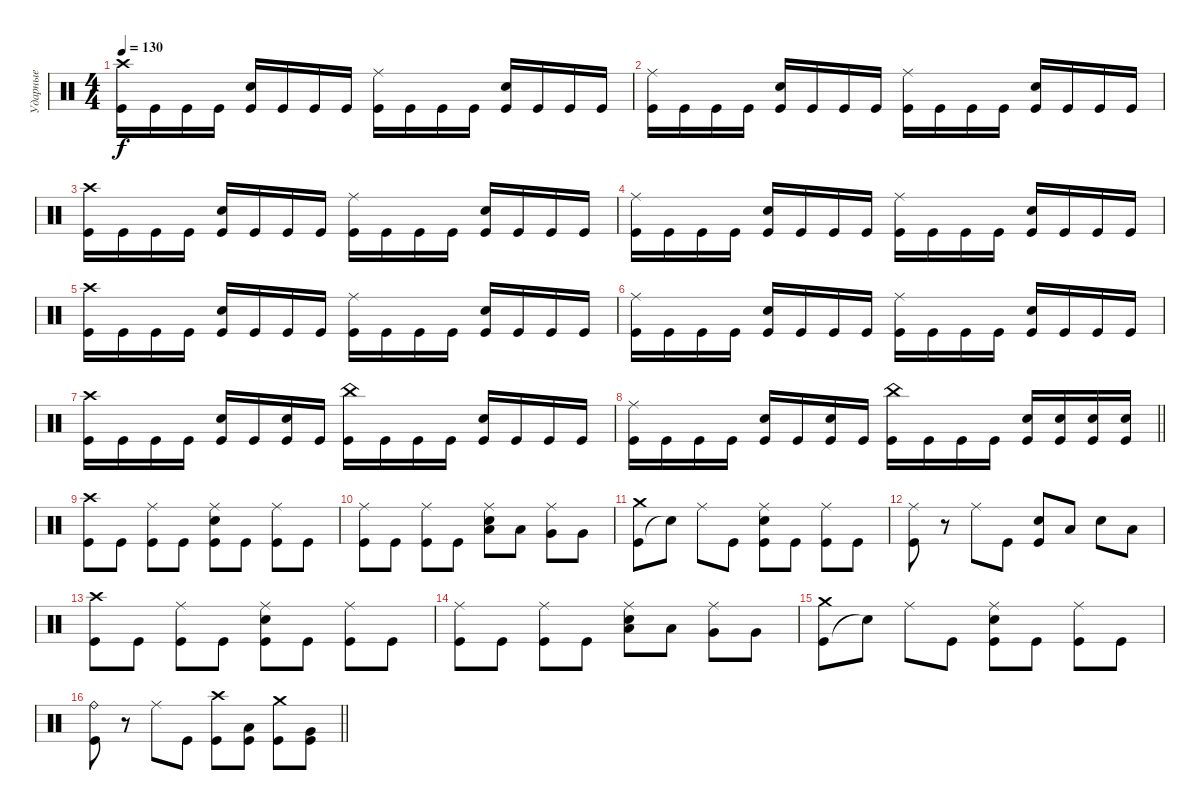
\track ("Ударные" "Ударные") {instrument percussion}
\staff {score}
\articulation defaults
\ts (4 4)
\tempo 130
\clef neutral
\ks c
("Crash high (hit)" "Kick (hit)").16{dy f} "Kick (hit)".16 "Kick (hit)".16 "Kick (hit)".16 ("Electric Snare (hit)" "Kick (hit)").16 "Kick (hit)".16 "Kick (hit)".16 "Kick (hit)".16 ("Ride (middle)" "Kick (hit)").16 "Kick (hit)".16 "Kick (hit)".16 "Kick (hit)".16 ("Electric Snare (hit)" "Kick (hit)").16 "Kick (hit)".16 "Kick (hit)".16 "Kick (hit)".16 |
("Ride (middle)" "Kick (hit)").16 "Kick (hit)".16 "Kick (hit)".16 "Kick (hit)".16 ("Electric Snare (hit)" "Kick (hit)").16 "Kick (hit)".16 "Kick (hit)".16 "Kick (hit)".16 ("Ride (middle)" "Kick (hit)").16 "Kick (hit)".16 "Kick (hit)".16 "Kick (hit)".16 ("Electric Snare (hit)" "Kick (hit)").16 "Kick (hit)".16 "Kick (hit)".16 "Kick (hit)".16 |
("Crash high (hit)" "Kick (hit)").16 "Kick (hit)".16 "Kick (hit)".16 "Kick (hit)".16 ("Electric Snare (hit)" "Kick (hit)").16 "Kick (hit)".16 "Kick (hit)".16 "Kick (hit)".16 ("Ride (middle)" "Kick (hit)").16 "Kick (hit)".16 "Kick (hit)".16 "Kick (hit)".16 ("Electric Snare (hit)" "Kick (hit)").16 "Kick (hit)".16 "Kick (hit)".16 "Kick (hit)".16 |
("Ride (middle)" "Kick (hit)").16 "Kick (hit)".16 "Kick (hit)".16 "Kick (hit)".16 ("Electric Snare (hit)" "Kick (hit)").16 "Kick (hit)".16 "Kick (hit)".16 "Kick (hit)".16 ("Ride (middle)" "Kick (hit)").16 "Kick (hit)".16 "Kick (hit)".16 "Kick (hit)".16 ("Electric Snare (hit)" "Kick (hit)").16 "Kick (hit)".16 "Kick (hit)".16 "Kick (hit)".16 |
("Crash high (hit)" "Kick (hit)").16 "Kick (hit)".16 "Kick (hit)".16 "Kick (hit)".16 ("Electric Snare (hit)" "Kick (hit)").16 "Kick (hit)".16 "Kick (hit)".16 "Kick (hit)".16 ("Ride (middle)" "Kick (hit)").16 "Kick (hit)".16 "Kick (hit)".16 "Kick (hit)".16 ("Electric Snare (hit)" "Kick (hit)").16 "Kick (hit)".16 "Kick (hit)".16 "Kick (hit)".16 |
("Ride (middle)" "Kick (hit)").16 "Kick (hit)".16 "Kick (hit)".16 "Kick (hit)".16 ("Electric Snare (hit)" "Kick (hit)").16 "Kick (hit)".16 "Kick (hit)".16 "Kick (hit)".16 ("Ride (middle)" "Kick (hit)").16 "Kick (hit)".16 "Kick (hit)".16 "Kick (hit)".16 ("Electric Snare (hit)" "Kick (hit)").16 "Kick (hit)".16 "Kick (hit)".16 "Kick (hit)".16 |
("Crash high (hit)" "Kick (hit)").16 "Kick (hit)".16 "Kick (hit)".16 "Kick (hit)".16 ("Electric Snare (hit)" "Kick (hit)").16 "Kick (hit)".16 ("Electric Snare (hit)" "Kick (hit)").16 "Kick (hit)".16 ("China (hit)" "Kick (hit)").16 "Kick (hit)".16 "Kick (hit)".16 "Kick (hit)".16 ("Electric Snare (hit)" "Kick (hit)").16 "Kick (hit)".16 "Kick (hit)".16 "Kick (hit)".16 |
\barLineRight lightlight
("Ride (middle)" "Kick (hit)").16 "Kick (hit)".16 "Kick (hit)".16 "Kick (hit)".16 ("Electric Snare (hit)" "Kick (hit)").16 "Kick (hit)".16 ("Electric Snare (hit)" "Kick (hit)").16 "Kick (hit)".16 ("China (hit)" "Kick (hit)").16 "Kick (hit)".16 "Kick (hit)".16 "Kick (hit)".16 ("Electric Snare (hit)" "Kick (hit)").16 ("Electric Snare (hit)" "Kick (hit)").16 ("Electric Snare (hit)" "Kick (hit)").16 ("Electric Snare (hit)" "Kick (hit)").16 |
\section ("" " ")
("Crash high (hit)" "Kick (hit)").8 "Kick (hit)".8 ("Ride (middle)" "Kick (hit)").8 "Kick (hit)".8 ("Ride (middle)" "Electric Snare (hit)" "Kick (hit)").8 "Kick (hit)".8 ("Ride (middle)" "Kick (hit)").8 "Kick (hit)".8 |
("Ride (middle)" "Kick (hit)").8 "Kick (hit)".8 ("Ride (middle)" "Kick (hit)").8 "Kick (hit)".8 ("Ride (middle)" "Electric Snare (hit)" "Low Tom (hit)").8 "Low Tom (hit)".8 ("Ride (middle)" "Very Low Tom (hit)").8 "Very Low Tom (hit)".8 |
("Kick (hit)" "Crash medium (hit)").8 "Snare (hit)"{t}.8 "Ride (middle)".8 "Kick (hit)".8 ("Electric Snare (hit)" "Kick (hit)" "Ride (middle)").8 "Kick (hit)".8 ("Kick (hit)" "Ride (middle)").8 "Kick (hit)".8 |
("Ride (middle)" "Kick (hit)").8 r.8 "Ride (middle)".8 "Kick (hit)".8 ("Electric Snare (hit)" "Kick (hit)").8 "Low Floor Tom (hit)".8 "Electric Snare (hit)".8 "Low Floor Tom (hit)".8 |
("Crash high (hit)" "Kick (hit)").8 "Kick (hit)".8 ("Ride (middle)" "Kick (hit)").8 "Kick (hit)".8 ("Ride (middle)" "Electric Snare (hit)" "Kick (hit)").8 "Kick (hit)".8 ("Ride (middle)" "Kick (hit)").8 "Kick (hit)".8 |
("Ride (middle)" "Kick (hit)").8 "Kick (hit)".8 ("Ride (middle)" "Kick (hit)").8 "Kick (hit)".8 ("Ride (middle)" "Electric Snare (hit)" "Low Tom (hit)").8 "Low Tom (hit)".8 ("Ride (middle)" "Very Low Tom (hit)").8 "Very Low Tom (hit)".8 |
("Kick (hit)" "Crash medium (hit)").8 "Snare (hit)"{t}.8 "Ride (middle)".8 "Kick (hit)".8 ("Electric Snare (hit)" "Kick (hit)" "Ride (middle)").8 "Kick (hit)".8 ("Kick (hit)" "Ride (middle)").8 "Kick (hit)".8 |
\barLineRight lightlight
("Ride (bell)" "Kick (hit)").8 r.8 "Ride (middle)".8 "Kick (hit)".8 ("Crash high (hit)" "Kick (hit)").8 ("Low Tom (hit)" "Kick (hit)").8 ("Crash medium (hit)" "Kick (hit)").8 ("Very Low Tom (hit)" "Kick (hit)").8
